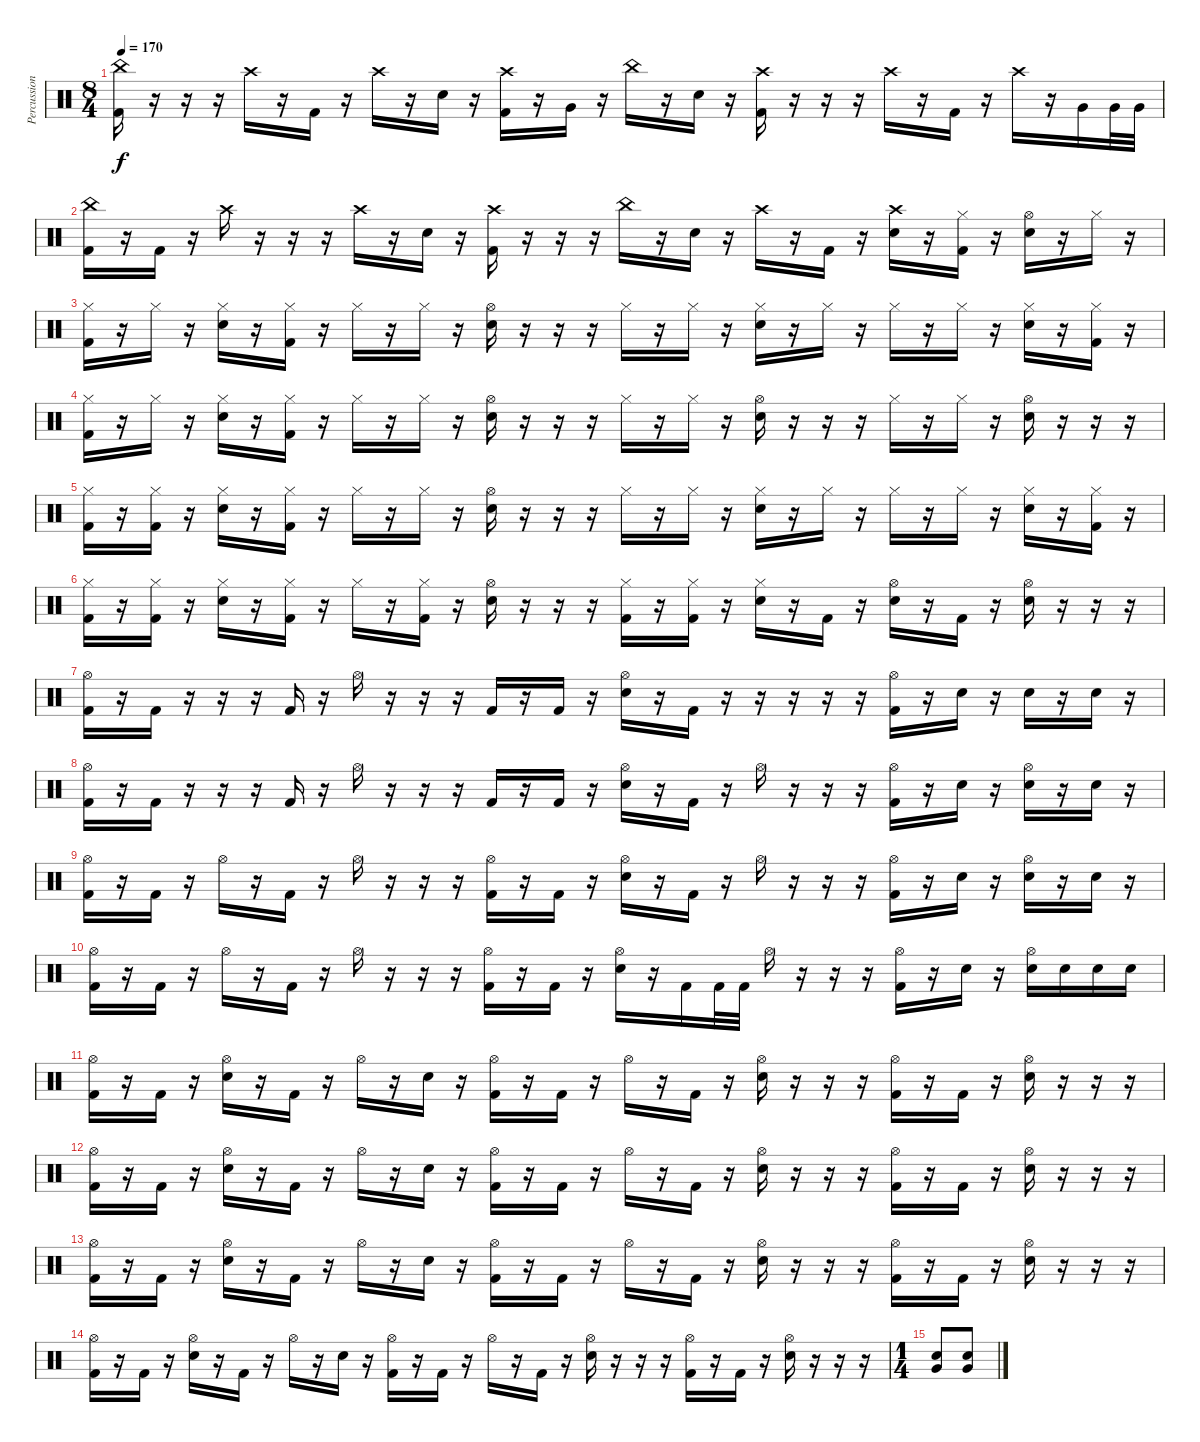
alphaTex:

\track ("Percussion" "Percussion") {instrument percussion}
\staff {score}
\articulation defaults
\ts (8 4)
\tempo 170
\clef neutral
\ks c
("Kick (hit) 2" "China (hit)").16{dy f} r.16 r.16 r.16 "Crash high (hit)".16 r.16 "Kick (hit) 2".16 r.16 "Crash high (hit)".16 r.16 "Snare (hit) 2".16 r.16 ("Kick (hit) 2" "Crash high (hit)").16 r.16 "Very Low Tom (hit)".16 r.16 "China (hit)".16 r.16 "Snare (hit) 2".16 r.16 ("Kick (hit) 2" "Crash high (hit)").16 r.16 r.16 r.16 "Crash high (hit)".16 r.16 "Kick (hit) 2".16 r.16 "Crash high (hit)".16 r.16 "Very Low Tom (hit)".16 "Very Low Tom (hit)".32 "Very Low Tom (hit)".32 |
("Kick (hit) 2" "China (hit)").16 r.16 "Kick (hit) 2".16 r.16 "Crash high (hit)".16 r.16 r.16 r.16 "Crash high (hit)".16 r.16 "Snare (hit) 2".16 r.16 ("Kick (hit) 2" "Crash high (hit)").16 r.16 r.16 r.16 "China (hit)".16 r.16 "Snare (hit) 2".16 r.16 "Crash high (hit)".16 r.16 "Kick (hit) 2".16 r.16 ("Snare (hit) 2" "Crash high (hit)").16 r.16 ("Kick (hit) 2" "Hi-Hat (closed)").16 r.16 ("Snare (hit) 2" "Hi-Hat (open)").16 r.16 "Hi-Hat (closed)".16 r.16 |
("Kick (hit) 2" "Hi-Hat (closed)").16 r.16 "Hi-Hat (closed)".16 r.16 ("Snare (hit) 2" "Hi-Hat (closed)").16 r.16 ("Kick (hit) 2" "Hi-Hat (closed)").16 r.16 "Hi-Hat (closed)".16 r.16 "Hi-Hat (closed)".16 r.16 ("Snare (hit) 2" "Hi-Hat (open)").16 r.16 r.16 r.16 "Hi-Hat (closed)".16 r.16 "Hi-Hat (closed)".16 r.16 ("Snare (hit) 2" "Hi-Hat (closed)").16 r.16 "Hi-Hat (closed)".16 r.16 "Hi-Hat (closed)".16 r.16 "Hi-Hat (closed)".16 r.16 ("Snare (hit) 2" "Hi-Hat (closed)").16 r.16 ("Kick (hit) 2" "Hi-Hat (closed)").16 r.16 |
("Kick (hit) 2" "Hi-Hat (closed)").16 r.16 "Hi-Hat (closed)".16 r.16 ("Snare (hit) 2" "Hi-Hat (closed)").16 r.16 ("Kick (hit) 2" "Hi-Hat (closed)").16 r.16 "Hi-Hat (closed)".16 r.16 "Hi-Hat (closed)".16 r.16 ("Snare (hit) 2" "Hi-Hat (open)").16 r.16 r.16 r.16 "Hi-Hat (closed)".16 r.16 "Hi-Hat (closed)".16 r.16 ("Snare (hit) 2" "Hi-Hat (open)").16 r.16 r.16 r.16 "Hi-Hat (closed)".16 r.16 "Hi-Hat (closed)".16 r.16 ("Snare (hit) 2" "Hi-Hat (open)").16 r.16 r.16 r.16 |
("Kick (hit) 2" "Hi-Hat (closed)").16 r.16 ("Kick (hit) 2" "Hi-Hat (closed)").16 r.16 ("Snare (hit) 2" "Hi-Hat (closed)").16 r.16 ("Kick (hit) 2" "Hi-Hat (closed)").16 r.16 "Hi-Hat (closed)".16 r.16 "Hi-Hat (closed)".16 r.16 ("Snare (hit) 2" "Hi-Hat (open)").16 r.16 r.16 r.16 "Hi-Hat (closed)".16 r.16 "Hi-Hat (closed)".16 r.16 ("Snare (hit) 2" "Hi-Hat (closed)").16 r.16 "Hi-Hat (closed)".16 r.16 "Hi-Hat (closed)".16 r.16 "Hi-Hat (closed)".16 r.16 ("Snare (hit) 2" "Hi-Hat (closed)").16 r.16 ("Kick (hit) 2" "Hi-Hat (closed)").16 r.16 |
("Kick (hit) 2" "Hi-Hat (closed)").16 r.16 ("Kick (hit) 2" "Hi-Hat (closed)").16 r.16 ("Snare (hit) 2" "Hi-Hat (closed)").16 r.16 ("Kick (hit) 2" "Hi-Hat (closed)").16 r.16 "Hi-Hat (closed)".16 r.16 ("Kick (hit) 2" "Hi-Hat (closed)").16 r.16 ("Snare (hit) 2" "Hi-Hat (open)").16 r.16 r.16 r.16 ("Kick (hit) 2" "Hi-Hat (closed)").16 r.16 ("Kick (hit) 2" "Hi-Hat (closed)").16 r.16 ("Snare (hit) 2" "Hi-Hat (closed)").16 r.16 "Kick (hit) 2".16 r.16 ("Snare (hit) 2" "Hi-Hat (open)").16 r.16 "Kick (hit) 2".16 r.16 ("Snare (hit) 2" "Hi-Hat (open)").16 r.16 r.16 r.16 |
("Kick (hit) 2" "Hi-Hat (open)").16 r.16 "Kick (hit) 2".16 r.16 r.16 r.16 "Kick (hit) 2".16 r.16 "Hi-Hat (open)".16 r.16 r.16 r.16 "Kick (hit) 2".16 r.16 "Kick (hit) 2".16 r.16 ("Snare (hit) 2" "Hi-Hat (open)").16 r.16 "Kick (hit) 2".16 r.16 r.16 r.16 r.16 r.16 ("Kick (hit) 2" "Hi-Hat (open)").16 r.16 "Snare (hit) 2".16 r.16 "Snare (hit) 2".16 r.16 "Snare (hit) 2".16 r.16 |
("Kick (hit) 2" "Hi-Hat (open)").16 r.16 "Kick (hit) 2".16 r.16 r.16 r.16 "Kick (hit) 2".16 r.16 "Hi-Hat (open)".16 r.16 r.16 r.16 "Kick (hit) 2".16 r.16 "Kick (hit) 2".16 r.16 ("Snare (hit) 2" "Hi-Hat (open)").16 r.16 "Kick (hit) 2".16 r.16 "Hi-Hat (open)".16 r.16 r.16 r.16 ("Kick (hit) 2" "Hi-Hat (open)").16 r.16 "Snare (hit) 2".16 r.16 ("Snare (hit) 2" "Hi-Hat (open)").16 r.16 "Snare (hit) 2".16 r.16 |
("Kick (hit) 2" "Hi-Hat (open)").16 r.16 "Kick (hit) 2".16 r.16 "Hi-Hat (open)".16 r.16 "Kick (hit) 2".16 r.16 "Hi-Hat (open)".16 r.16 r.16 r.16 ("Kick (hit) 2" "Hi-Hat (open)").16 r.16 "Kick (hit) 2".16 r.16 ("Snare (hit) 2" "Hi-Hat (open)").16 r.16 "Kick (hit) 2".16 r.16 "Hi-Hat (open)".16 r.16 r.16 r.16 ("Kick (hit) 2" "Hi-Hat (open)").16 r.16 "Snare (hit) 2".16 r.16 ("Snare (hit) 2" "Hi-Hat (open)").16 r.16 "Snare (hit) 2".16 r.16 |
("Kick (hit) 2" "Hi-Hat (open)").16 r.16 "Kick (hit) 2".16 r.16 "Hi-Hat (open)".16 r.16 "Kick (hit) 2".16 r.16 "Hi-Hat (open)".16 r.16 r.16 r.16 ("Kick (hit) 2" "Hi-Hat (open)").16 r.16 "Kick (hit) 2".16 r.16 ("Snare (hit) 2" "Hi-Hat (open)").16 r.16 "Kick (hit) 2".16 "Kick (hit) 2".32 "Kick (hit) 2".32 "Hi-Hat (open)".16 r.16 r.16 r.16 ("Kick (hit) 2" "Hi-Hat (open)").16 r.16 "Snare (hit) 2".16 r.16 ("Snare (hit) 2" "Hi-Hat (open)").16 "Snare (hit) 2".16 "Snare (hit) 2".16 "Snare (hit) 2".16 |
("Kick (hit) 2" "Hi-Hat (open)").16 r.16 "Kick (hit) 2".16 r.16 ("Snare (hit) 2" "Hi-Hat (open)").16 r.16 "Kick (hit) 2".16 r.16 "Hi-Hat (open)".16 r.16 "Snare (hit) 2".16 r.16 ("Kick (hit) 2" "Hi-Hat (open)").16 r.16 "Kick (hit) 2".16 r.16 "Hi-Hat (open)".16 r.16 "Kick (hit) 2".16 r.16 ("Snare (hit) 2" "Hi-Hat (open)").16 r.16 r.16 r.16 ("Kick (hit) 2" "Hi-Hat (open)").16 r.16 "Kick (hit) 2".16 r.16 ("Snare (hit) 2" "Hi-Hat (open)").16 r.16 r.16 r.16 |
("Kick (hit) 2" "Hi-Hat (open)").16 r.16 "Kick (hit) 2".16 r.16 ("Snare (hit) 2" "Hi-Hat (open)").16 r.16 "Kick (hit) 2".16 r.16 "Hi-Hat (open)".16 r.16 "Snare (hit) 2".16 r.16 ("Kick (hit) 2" "Hi-Hat (open)").16 r.16 "Kick (hit) 2".16 r.16 "Hi-Hat (open)".16 r.16 "Kick (hit) 2".16 r.16 ("Snare (hit) 2" "Hi-Hat (open)").16 r.16 r.16 r.16 ("Kick (hit) 2" "Hi-Hat (open)").16 r.16 "Kick (hit) 2".16 r.16 ("Snare (hit) 2" "Hi-Hat (open)").16 r.16 r.16 r.16 |
("Kick (hit) 2" "Hi-Hat (open)").16 r.16 "Kick (hit) 2".16 r.16 ("Snare (hit) 2" "Hi-Hat (open)").16 r.16 "Kick (hit) 2".16 r.16 "Hi-Hat (open)".16 r.16 "Snare (hit) 2".16 r.16 ("Kick (hit) 2" "Hi-Hat (open)").16 r.16 "Kick (hit) 2".16 r.16 "Hi-Hat (open)".16 r.16 "Kick (hit) 2".16 r.16 ("Snare (hit) 2" "Hi-Hat (open)").16 r.16 r.16 r.16 ("Kick (hit) 2" "Hi-Hat (open)").16 r.16 "Kick (hit) 2".16 r.16 ("Snare (hit) 2" "Hi-Hat (open)").16 r.16 r.16 r.16 |
("Kick (hit) 2" "Hi-Hat (open)").16 r.16 "Kick (hit) 2".16 r.16 ("Snare (hit) 2" "Hi-Hat (open)").16 r.16 "Kick (hit) 2".16 r.16 "Hi-Hat (open)".16 r.16 "Snare (hit) 2".16 r.16 ("Kick (hit) 2" "Hi-Hat (open)").16 r.16 "Kick (hit) 2".16 r.16 "Hi-Hat (open)".16 r.16 "Kick (hit) 2".16 r.16 ("Snare (hit) 2" "Hi-Hat (open)").16 r.16 r.16 r.16 ("Kick (hit) 2" "Hi-Hat (open)").16 r.16 "Kick (hit) 2".16 r.16 ("Snare (hit) 2" "Hi-Hat (open)").16 r.16 r.16 r.16 |
\ts (1 4)
("Snare (hit) 2" "Very Low Tom (hit)").8 ("Snare (hit) 2" "Very Low Tom (hit)").8
